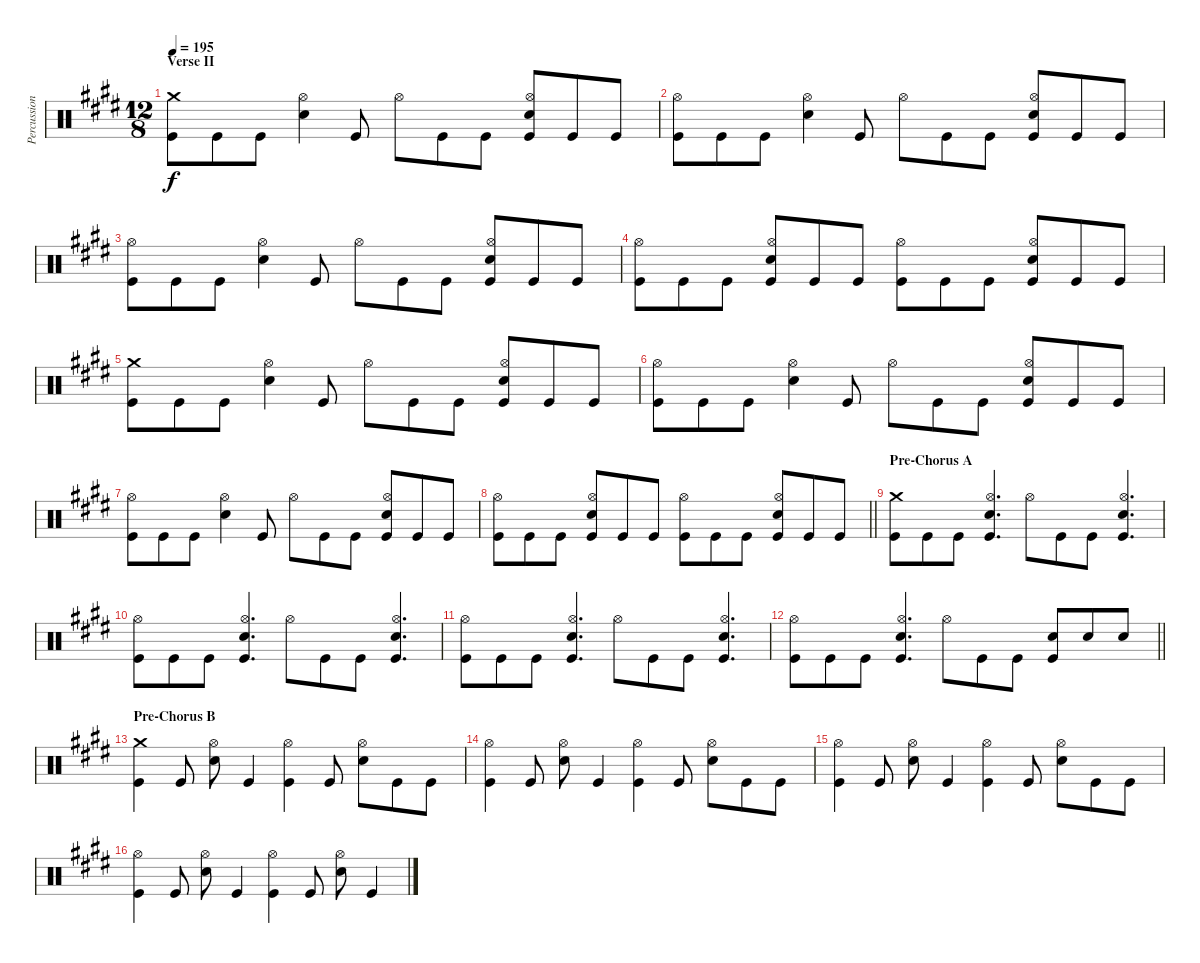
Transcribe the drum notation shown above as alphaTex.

\track ("Percussion" "Percussion") {instrument percussion}
\staff {score}
\articulation defaults
\ts (12 8)
\section ("" "Verse II")
\tempo 195
\clef neutral
\ks e
("Crash medium (hit)" "Kick (hit)").8{dy f} "Kick (hit)".8 "Kick (hit)".8 ("Hi-Hat (open)" "Electric Snare (hit)").4 "Kick (hit)".8 "Hi-Hat (open)".8 "Kick (hit)".8 "Kick (hit)".8 ("Hi-Hat (open)" "Electric Snare (hit)" "Kick (hit)").8 "Kick (hit)".8 "Kick (hit)".8 |
("Hi-Hat (open)" "Kick (hit)").8 "Kick (hit)".8 "Kick (hit)".8 ("Hi-Hat (open)" "Electric Snare (hit)").4 "Kick (hit)".8 "Hi-Hat (open)".8 "Kick (hit)".8 "Kick (hit)".8 ("Hi-Hat (open)" "Electric Snare (hit)" "Kick (hit)").8 "Kick (hit)".8 "Kick (hit)".8 |
("Hi-Hat (open)" "Kick (hit)").8 "Kick (hit)".8 "Kick (hit)".8 ("Hi-Hat (open)" "Electric Snare (hit)").4 "Kick (hit)".8 "Hi-Hat (open)".8 "Kick (hit)".8 "Kick (hit)".8 ("Hi-Hat (open)" "Electric Snare (hit)" "Kick (hit)").8 "Kick (hit)".8 "Kick (hit)".8 |
("Hi-Hat (open)" "Kick (hit)").8 "Kick (hit)".8 "Kick (hit)".8 ("Hi-Hat (open)" "Electric Snare (hit)" "Kick (hit)").8 "Kick (hit)".8 "Kick (hit)".8 ("Hi-Hat (open)" "Kick (hit)").8 "Kick (hit)".8 "Kick (hit)".8 ("Hi-Hat (open)" "Electric Snare (hit)" "Kick (hit)").8 "Kick (hit)".8 "Kick (hit)".8 |
("Crash medium (hit)" "Kick (hit)").8 "Kick (hit)".8 "Kick (hit)".8 ("Hi-Hat (open)" "Electric Snare (hit)").4 "Kick (hit)".8 "Hi-Hat (open)".8 "Kick (hit)".8 "Kick (hit)".8 ("Hi-Hat (open)" "Electric Snare (hit)" "Kick (hit)").8 "Kick (hit)".8 "Kick (hit)".8 |
("Hi-Hat (open)" "Kick (hit)").8 "Kick (hit)".8 "Kick (hit)".8 ("Hi-Hat (open)" "Electric Snare (hit)").4 "Kick (hit)".8 "Hi-Hat (open)".8 "Kick (hit)".8 "Kick (hit)".8 ("Hi-Hat (open)" "Electric Snare (hit)" "Kick (hit)").8 "Kick (hit)".8 "Kick (hit)".8 |
("Hi-Hat (open)" "Kick (hit)").8 "Kick (hit)".8 "Kick (hit)".8 ("Hi-Hat (open)" "Electric Snare (hit)").4 "Kick (hit)".8 "Hi-Hat (open)".8 "Kick (hit)".8 "Kick (hit)".8 ("Hi-Hat (open)" "Electric Snare (hit)" "Kick (hit)").8 "Kick (hit)".8 "Kick (hit)".8 |
\barLineRight lightlight
("Hi-Hat (open)" "Kick (hit)").8 "Kick (hit)".8 "Kick (hit)".8 ("Hi-Hat (open)" "Electric Snare (hit)" "Kick (hit)").8 "Kick (hit)".8 "Kick (hit)".8 ("Hi-Hat (open)" "Kick (hit)").8 "Kick (hit)".8 "Kick (hit)".8 ("Hi-Hat (open)" "Electric Snare (hit)" "Kick (hit)").8 "Kick (hit)".8 "Kick (hit)".8 |
\section ("" "Pre-Chorus A")
("Crash medium (hit)" "Kick (hit)").8 "Kick (hit)".8 "Kick (hit)".8 ("Hi-Hat (open)" "Electric Snare (hit)" "Kick (hit)").4{d} "Hi-Hat (open)".8 "Kick (hit)".8 "Kick (hit)".8 ("Hi-Hat (open)" "Electric Snare (hit)" "Kick (hit)").4{d} |
("Hi-Hat (open)" "Kick (hit)").8 "Kick (hit)".8 "Kick (hit)".8 ("Hi-Hat (open)" "Electric Snare (hit)" "Kick (hit)").4{d} "Hi-Hat (open)".8 "Kick (hit)".8 "Kick (hit)".8 ("Hi-Hat (open)" "Electric Snare (hit)" "Kick (hit)").4{d} |
("Hi-Hat (open)" "Kick (hit)").8 "Kick (hit)".8 "Kick (hit)".8 ("Hi-Hat (open)" "Electric Snare (hit)" "Kick (hit)").4{d} "Hi-Hat (open)".8 "Kick (hit)".8 "Kick (hit)".8 ("Hi-Hat (open)" "Electric Snare (hit)" "Kick (hit)").4{d} |
\barLineRight lightlight
("Hi-Hat (open)" "Kick (hit)").8 "Kick (hit)".8 "Kick (hit)".8 ("Hi-Hat (open)" "Electric Snare (hit)" "Kick (hit)").4{d} "Hi-Hat (open)".8 "Kick (hit)".8 "Kick (hit)".8 ("Electric Snare (hit)" "Kick (hit)").8 "Electric Snare (hit)".8 "Electric Snare (hit)".8 |
\section ("" "Pre-Chorus B")
("Crash medium (hit)" "Kick (hit)").4 "Kick (hit)".8 ("Hi-Hat (open)" "Electric Snare (hit)").8 "Kick (hit)".4 ("Hi-Hat (open)" "Kick (hit)").4 "Kick (hit)".8 ("Hi-Hat (open)" "Electric Snare (hit)").8 "Kick (hit)".8 "Kick (hit)".8 |
("Hi-Hat (open)" "Kick (hit)").4 "Kick (hit)".8 ("Hi-Hat (open)" "Electric Snare (hit)").8 "Kick (hit)".4 ("Hi-Hat (open)" "Kick (hit)").4 "Kick (hit)".8 ("Hi-Hat (open)" "Electric Snare (hit)").8 "Kick (hit)".8 "Kick (hit)".8 |
("Hi-Hat (open)" "Kick (hit)").4 "Kick (hit)".8 ("Hi-Hat (open)" "Electric Snare (hit)").8 "Kick (hit)".4 ("Hi-Hat (open)" "Kick (hit)").4 "Kick (hit)".8 ("Hi-Hat (open)" "Electric Snare (hit)").8 "Kick (hit)".8 "Kick (hit)".8 |
("Hi-Hat (open)" "Kick (hit)").4 "Kick (hit)".8 ("Hi-Hat (open)" "Electric Snare (hit)").8 "Kick (hit)".4 ("Hi-Hat (open)" "Kick (hit)").4 "Kick (hit)".8 ("Hi-Hat (open)" "Electric Snare (hit)").8 "Kick (hit)".4
